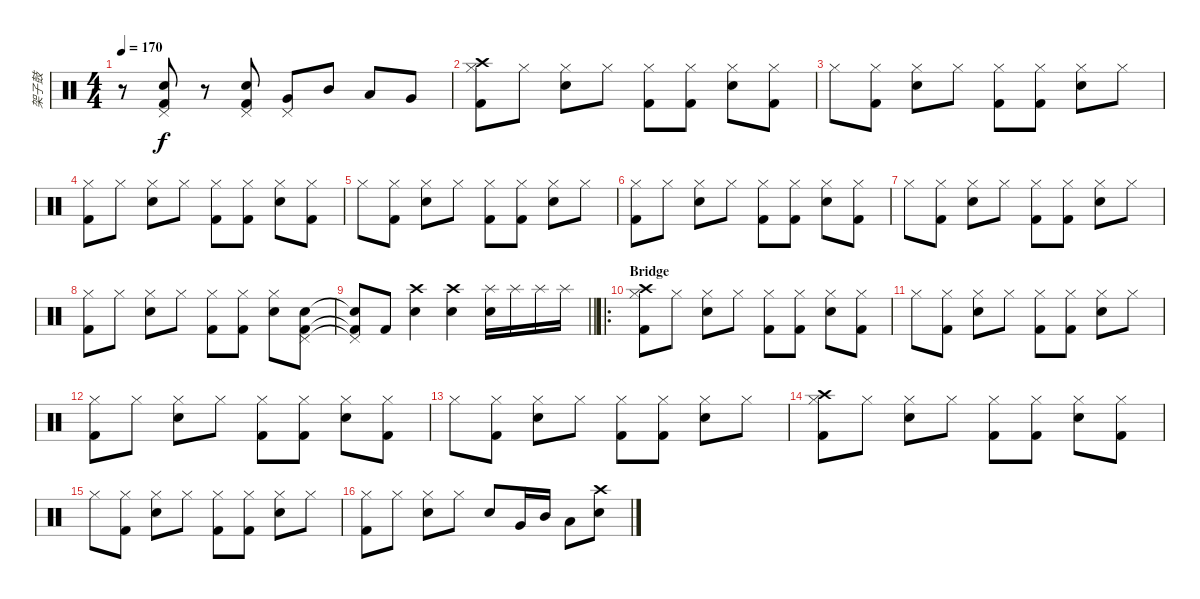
\track ("架子鼓" "架子鼓") {instrument percussion}
\staff {score}
\articulation defaults
\ts (4 4)
\tempo 170
\clef neutral
\ks c
r.8{dy f} ("Pedal Hi-Hat (hit)" "Snare (hit) 2" "Kick (hit) 2").8 r.8 ("Pedal Hi-Hat (hit)" "Snare (hit) 2" "Kick (hit) 2").8 ("Pedal Hi-Hat (hit)" "Very Low Tom (hit)").8 "Mid Tom (hit)".8 "Low Tom (hit)".8 "Very Low Tom (hit)".8 |
("Hi-Hat (closed)" "Crash high (hit)" "Kick (hit) 2").8 "Hi-Hat (closed)".8 ("Hi-Hat (closed)" "Snare (hit) 2").8 "Hi-Hat (closed)".8 ("Hi-Hat (closed)" "Kick (hit) 2").8 ("Hi-Hat (closed)" "Kick (hit) 2").8 ("Hi-Hat (closed)" "Snare (hit) 2").8 ("Hi-Hat (closed)" "Kick (hit) 2").8 |
"Hi-Hat (closed)".8 ("Hi-Hat (closed)" "Kick (hit) 2").8 ("Hi-Hat (closed)" "Snare (hit) 2").8 "Hi-Hat (closed)".8 ("Hi-Hat (closed)" "Kick (hit) 2").8 ("Hi-Hat (closed)" "Kick (hit) 2").8 ("Hi-Hat (closed)" "Snare (hit) 2").8 "Hi-Hat (closed)".8 |
("Hi-Hat (closed)" "Kick (hit) 2").8 "Hi-Hat (closed)".8 ("Hi-Hat (closed)" "Snare (hit) 2").8 "Hi-Hat (closed)".8 ("Hi-Hat (closed)" "Kick (hit) 2").8 ("Hi-Hat (closed)" "Kick (hit) 2").8 ("Hi-Hat (closed)" "Snare (hit) 2").8 ("Hi-Hat (closed)" "Kick (hit) 2").8 |
"Hi-Hat (closed)".8 ("Hi-Hat (closed)" "Kick (hit) 2").8 ("Hi-Hat (closed)" "Snare (hit) 2").8 "Hi-Hat (closed)".8 ("Hi-Hat (closed)" "Kick (hit) 2").8 ("Hi-Hat (closed)" "Kick (hit) 2").8 ("Hi-Hat (closed)" "Snare (hit) 2").8 "Hi-Hat (closed)".8 |
("Hi-Hat (closed)" "Kick (hit) 2").8 "Hi-Hat (closed)".8 ("Hi-Hat (closed)" "Snare (hit) 2").8 "Hi-Hat (closed)".8 ("Hi-Hat (closed)" "Kick (hit) 2").8 ("Hi-Hat (closed)" "Kick (hit) 2").8 ("Hi-Hat (closed)" "Snare (hit) 2").8 ("Hi-Hat (closed)" "Kick (hit) 2").8 |
"Hi-Hat (closed)".8 ("Hi-Hat (closed)" "Kick (hit) 2").8 ("Hi-Hat (closed)" "Snare (hit) 2").8 "Hi-Hat (closed)".8 ("Hi-Hat (closed)" "Kick (hit) 2").8 ("Hi-Hat (closed)" "Kick (hit) 2").8 ("Hi-Hat (closed)" "Snare (hit) 2").8 "Hi-Hat (closed)".8 |
("Hi-Hat (closed)" "Kick (hit) 2").8 "Hi-Hat (closed)".8 ("Hi-Hat (closed)" "Snare (hit) 2").8 "Hi-Hat (closed)".8 ("Hi-Hat (closed)" "Kick (hit) 2").8 ("Hi-Hat (closed)" "Kick (hit) 2").8 ("Hi-Hat (closed)" "Snare (hit) 2").8 ("Pedal Hi-Hat (hit)" "Snare (hit) 2" "Kick (hit) 2").8 |
\barLineRight lightlight
("Pedal Hi-Hat (hit)"{t} "Snare (hit) 2"{t} "Kick (hit) 2"{t}).8 "Kick (hit) 2".8 ("Crash high (hit)" "Snare (hit) 2").4 ("Crash high (hit)" "Snare (hit) 2").4 ("Splash (hit)" "Snare (hit) 2").16 "Splash (hit)".16 "Splash (hit)".16 "Splash (hit)".16 |
\ro
\section ("" "Bridge")
("Hi-Hat (closed)" "Crash high (hit)" "Kick (hit) 2").8 "Hi-Hat (closed)".8 ("Hi-Hat (closed)" "Snare (hit) 2").8 "Hi-Hat (closed)".8 ("Hi-Hat (closed)" "Kick (hit) 2").8 ("Hi-Hat (closed)" "Kick (hit) 2").8 ("Hi-Hat (closed)" "Snare (hit) 2").8 ("Hi-Hat (closed)" "Kick (hit) 2").8 |
"Hi-Hat (closed)".8 ("Hi-Hat (closed)" "Kick (hit) 2").8 ("Hi-Hat (closed)" "Snare (hit) 2").8 "Hi-Hat (closed)".8 ("Hi-Hat (closed)" "Kick (hit) 2").8 ("Hi-Hat (closed)" "Kick (hit) 2").8 ("Hi-Hat (closed)" "Snare (hit) 2").8 "Hi-Hat (closed)".8 |
("Hi-Hat (closed)" "Kick (hit) 2").8 "Hi-Hat (closed)".8 ("Hi-Hat (closed)" "Snare (hit) 2").8 "Hi-Hat (closed)".8 ("Hi-Hat (closed)" "Kick (hit) 2").8 ("Hi-Hat (closed)" "Kick (hit) 2").8 ("Hi-Hat (closed)" "Snare (hit) 2").8 ("Hi-Hat (closed)" "Kick (hit) 2").8 |
"Hi-Hat (closed)".8 ("Hi-Hat (closed)" "Kick (hit) 2").8 ("Hi-Hat (closed)" "Snare (hit) 2").8 "Hi-Hat (closed)".8 ("Hi-Hat (closed)" "Kick (hit) 2").8 ("Hi-Hat (closed)" "Kick (hit) 2").8 ("Hi-Hat (closed)" "Snare (hit) 2").8 "Hi-Hat (closed)".8 |
("Hi-Hat (closed)" "Crash high (hit)" "Kick (hit) 2").8 "Hi-Hat (closed)".8 ("Hi-Hat (closed)" "Snare (hit) 2").8 "Hi-Hat (closed)".8 ("Hi-Hat (closed)" "Kick (hit) 2").8 ("Hi-Hat (closed)" "Kick (hit) 2").8 ("Hi-Hat (closed)" "Snare (hit) 2").8 ("Hi-Hat (closed)" "Kick (hit) 2").8 |
"Hi-Hat (closed)".8 ("Hi-Hat (closed)" "Kick (hit) 2").8 ("Hi-Hat (closed)" "Snare (hit) 2").8 "Hi-Hat (closed)".8 ("Hi-Hat (closed)" "Kick (hit) 2").8 ("Hi-Hat (closed)" "Kick (hit) 2").8 ("Hi-Hat (closed)" "Snare (hit) 2").8 "Hi-Hat (closed)".8 |
("Hi-Hat (closed)" "Kick (hit) 2").8 "Hi-Hat (closed)".8 ("Hi-Hat (closed)" "Snare (hit) 2").8 "Hi-Hat (closed)".8 "Snare (hit) 2".8 "Very Low Tom (hit)".16 "Mid Tom (hit)".16 "Low Tom (hit)".8 ("Crash high (hit)" "Snare (hit) 2").8
